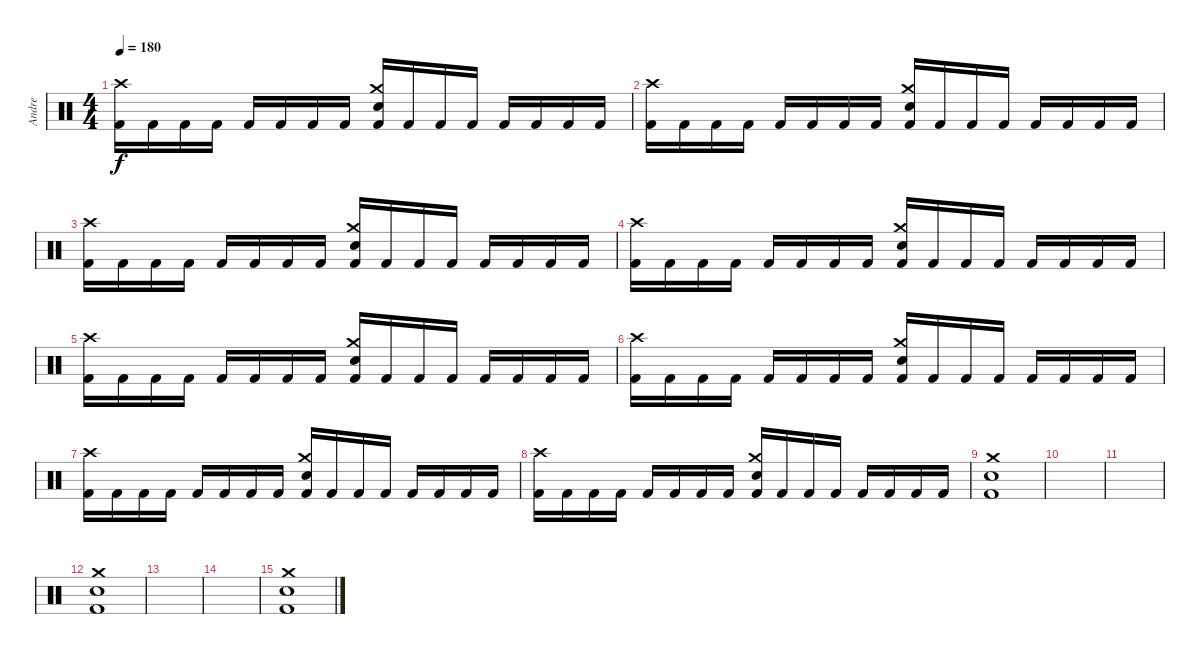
\track ("Andre" "Andre") {instrument percussion}
\staff {score}
\articulation defaults
\ts (4 4)
\tempo 180
\clef neutral
\ks c
("Crash high (hit)" "Kick (hit) 2").16{dy f} "Kick (hit) 2".16 "Kick (hit) 2".16 "Kick (hit) 2".16 "Kick (hit) 2".16 "Kick (hit) 2".16 "Kick (hit) 2".16 "Kick (hit) 2".16 ("Crash medium (hit)" "Snare (hit) 2" "Kick (hit) 2").16 "Kick (hit) 2".16 "Kick (hit) 2".16 "Kick (hit) 2".16 "Kick (hit) 2".16 "Kick (hit) 2".16 "Kick (hit) 2".16 "Kick (hit) 2".16 |
("Crash high (hit)" "Kick (hit) 2").16 "Kick (hit) 2".16 "Kick (hit) 2".16 "Kick (hit) 2".16 "Kick (hit) 2".16 "Kick (hit) 2".16 "Kick (hit) 2".16 "Kick (hit) 2".16 ("Crash medium (hit)" "Snare (hit) 2" "Kick (hit) 2").16 "Kick (hit) 2".16 "Kick (hit) 2".16 "Kick (hit) 2".16 "Kick (hit) 2".16 "Kick (hit) 2".16 "Kick (hit) 2".16 "Kick (hit) 2".16 |
("Crash high (hit)" "Kick (hit) 2").16 "Kick (hit) 2".16 "Kick (hit) 2".16 "Kick (hit) 2".16 "Kick (hit) 2".16 "Kick (hit) 2".16 "Kick (hit) 2".16 "Kick (hit) 2".16 ("Crash medium (hit)" "Snare (hit) 2" "Kick (hit) 2").16 "Kick (hit) 2".16 "Kick (hit) 2".16 "Kick (hit) 2".16 "Kick (hit) 2".16 "Kick (hit) 2".16 "Kick (hit) 2".16 "Kick (hit) 2".16 |
("Crash high (hit)" "Kick (hit) 2").16 "Kick (hit) 2".16 "Kick (hit) 2".16 "Kick (hit) 2".16 "Kick (hit) 2".16 "Kick (hit) 2".16 "Kick (hit) 2".16 "Kick (hit) 2".16 ("Crash medium (hit)" "Snare (hit) 2" "Kick (hit) 2").16 "Kick (hit) 2".16 "Kick (hit) 2".16 "Kick (hit) 2".16 "Kick (hit) 2".16 "Kick (hit) 2".16 "Kick (hit) 2".16 "Kick (hit) 2".16 |
("Crash high (hit)" "Kick (hit) 2").16 "Kick (hit) 2".16 "Kick (hit) 2".16 "Kick (hit) 2".16 "Kick (hit) 2".16 "Kick (hit) 2".16 "Kick (hit) 2".16 "Kick (hit) 2".16 ("Crash medium (hit)" "Snare (hit) 2" "Kick (hit) 2").16 "Kick (hit) 2".16 "Kick (hit) 2".16 "Kick (hit) 2".16 "Kick (hit) 2".16 "Kick (hit) 2".16 "Kick (hit) 2".16 "Kick (hit) 2".16 |
("Crash high (hit)" "Kick (hit) 2").16 "Kick (hit) 2".16 "Kick (hit) 2".16 "Kick (hit) 2".16 "Kick (hit) 2".16 "Kick (hit) 2".16 "Kick (hit) 2".16 "Kick (hit) 2".16 ("Crash medium (hit)" "Snare (hit) 2" "Kick (hit) 2").16 "Kick (hit) 2".16 "Kick (hit) 2".16 "Kick (hit) 2".16 "Kick (hit) 2".16 "Kick (hit) 2".16 "Kick (hit) 2".16 "Kick (hit) 2".16 |
("Crash high (hit)" "Kick (hit) 2").16 "Kick (hit) 2".16 "Kick (hit) 2".16 "Kick (hit) 2".16 "Kick (hit) 2".16 "Kick (hit) 2".16 "Kick (hit) 2".16 "Kick (hit) 2".16 ("Crash medium (hit)" "Snare (hit) 2" "Kick (hit) 2").16 "Kick (hit) 2".16 "Kick (hit) 2".16 "Kick (hit) 2".16 "Kick (hit) 2".16 "Kick (hit) 2".16 "Kick (hit) 2".16 "Kick (hit) 2".16 |
("Crash high (hit)" "Kick (hit) 2").16 "Kick (hit) 2".16 "Kick (hit) 2".16 "Kick (hit) 2".16 "Kick (hit) 2".16 "Kick (hit) 2".16 "Kick (hit) 2".16 "Kick (hit) 2".16 ("Crash medium (hit)" "Snare (hit) 2" "Kick (hit) 2").16 "Kick (hit) 2".16 "Kick (hit) 2".16 "Kick (hit) 2".16 "Kick (hit) 2".16 "Kick (hit) 2".16 "Kick (hit) 2".16 "Kick (hit) 2".16 |
("Crash medium (hit)" "Snare (hit) 2" "Kick (hit) 2").1 |
|
|
("Crash medium (hit)" "Snare (hit) 2" "Kick (hit) 2").1 |
|
|
("Crash medium (hit)" "Snare (hit) 2" "Kick (hit) 2").1
